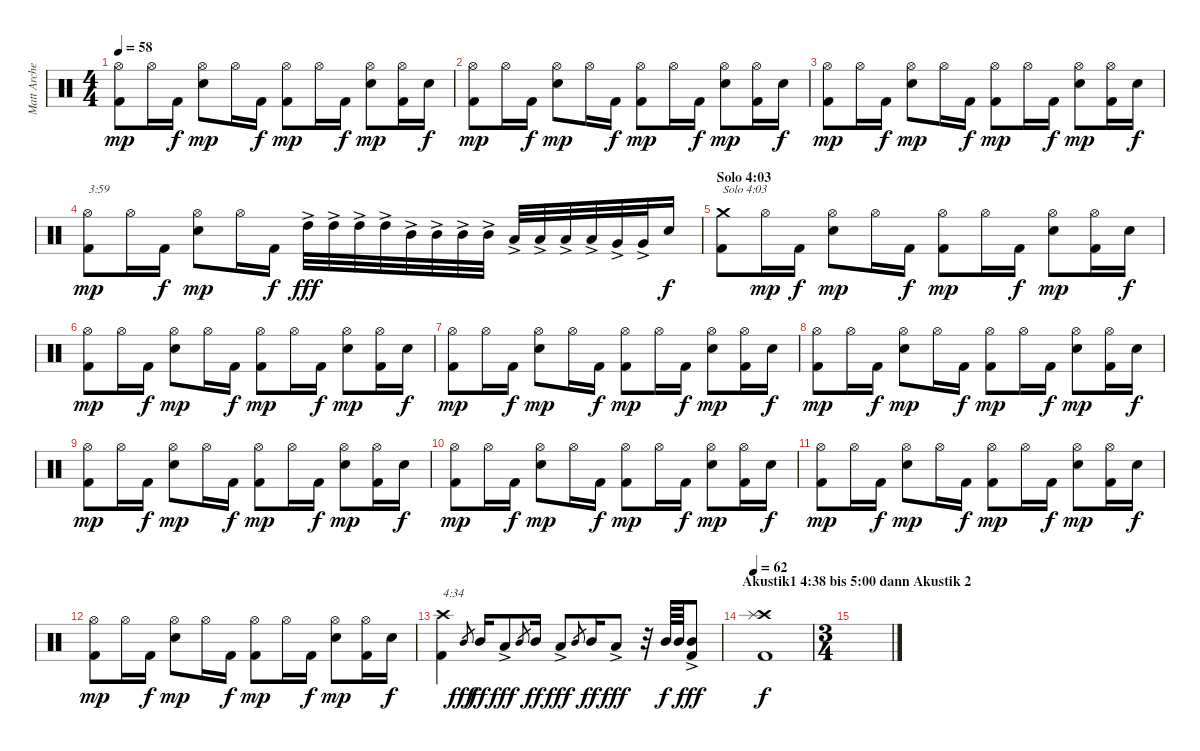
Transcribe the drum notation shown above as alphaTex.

\track ("Matt Archer" "Matt Arche") {instrument percussion}
\staff {score}
\articulation defaults
\ts (4 4)
\tempo 58
\clef neutral
\ks c
("Kick (hit) 2" "Hi-Hat (open)").8{dy mp} "Hi-Hat (open)".16 "Kick (hit) 2".16{dy f} ("Electric Snare (hit)" "Hi-Hat (open)").8{dy mp} "Hi-Hat (open)".16 "Kick (hit) 2".16{dy f} ("Kick (hit) 2" "Hi-Hat (open)").8{dy mp} "Hi-Hat (open)".16 "Kick (hit) 2".16{dy f} ("Electric Snare (hit)" "Hi-Hat (open)").8{dy mp} ("Kick (hit) 2" "Hi-Hat (open)").16 "Electric Snare (hit)".16{dy f} |
("Kick (hit) 2" "Hi-Hat (open)").8{dy mp} "Hi-Hat (open)".16 "Kick (hit) 2".16{dy f} ("Electric Snare (hit)" "Hi-Hat (open)").8{dy mp} "Hi-Hat (open)".16 "Kick (hit) 2".16{dy f} ("Kick (hit) 2" "Hi-Hat (open)").8{dy mp} "Hi-Hat (open)".16 "Kick (hit) 2".16{dy f} ("Electric Snare (hit)" "Hi-Hat (open)").8{dy mp} ("Kick (hit) 2" "Hi-Hat (open)").16 "Electric Snare (hit)".16{dy f} |
("Kick (hit) 2" "Hi-Hat (open)").8{dy mp} "Hi-Hat (open)".16 "Kick (hit) 2".16{dy f} ("Electric Snare (hit)" "Hi-Hat (open)").8{dy mp} "Hi-Hat (open)".16 "Kick (hit) 2".16{dy f} ("Kick (hit) 2" "Hi-Hat (open)").8{dy mp} "Hi-Hat (open)".16 "Kick (hit) 2".16{dy f} ("Electric Snare (hit)" "Hi-Hat (open)").8{dy mp} ("Kick (hit) 2" "Hi-Hat (open)").16 "Electric Snare (hit)".16{dy f} |
("Kick (hit) 2" "Hi-Hat (open)").8{txt "3:59" dy mp} "Hi-Hat (open)".16 "Kick (hit) 2".16{dy f} ("Electric Snare (hit)" "Hi-Hat (open)").8{dy mp} "Hi-Hat (open)".16 "Kick (hit) 2".16{dy f} "High Tom (hit)"{ac}.32{dy fff} "High Tom (hit)"{ac}.32 "High Tom (hit)"{ac}.32 "High Tom (hit)"{ac}.32 "Mid Tom (hit)"{ac}.32 "Mid Tom (hit)"{ac}.32 "Mid Tom (hit)"{ac}.32 "Mid Tom (hit)"{ac}.32 "Low Tom (hit)"{ac}.32 "Low Tom (hit)"{ac}.32 "Low Tom (hit)"{ac}.32 "Low Tom (hit)"{ac}.32 "Very Low Tom (hit)"{ac}.32 "Very Low Tom (hit)"{ac}.32 "Electric Snare (hit)".16{dy f} |
\section ("" "Solo 4:03")
("Kick (hit) 2" "Crash medium (hit)").8{txt "Solo 4:03"} "Hi-Hat (open)".16{dy mp} "Kick (hit) 2".16{dy f} ("Electric Snare (hit)" "Hi-Hat (open)").8{dy mp} "Hi-Hat (open)".16 "Kick (hit) 2".16{dy f} ("Kick (hit) 2" "Hi-Hat (open)").8{dy mp} "Hi-Hat (open)".16 "Kick (hit) 2".16{dy f} ("Electric Snare (hit)" "Hi-Hat (open)").8{dy mp} ("Kick (hit) 2" "Hi-Hat (open)").16 "Electric Snare (hit)".16{dy f} |
("Kick (hit) 2" "Hi-Hat (open)").8{dy mp} "Hi-Hat (open)".16 "Kick (hit) 2".16{dy f} ("Electric Snare (hit)" "Hi-Hat (open)").8{dy mp} "Hi-Hat (open)".16 "Kick (hit) 2".16{dy f} ("Kick (hit) 2" "Hi-Hat (open)").8{dy mp} "Hi-Hat (open)".16 "Kick (hit) 2".16{dy f} ("Electric Snare (hit)" "Hi-Hat (open)").8{dy mp} ("Kick (hit) 2" "Hi-Hat (open)").16 "Electric Snare (hit)".16{dy f} |
("Kick (hit) 2" "Hi-Hat (open)").8{dy mp} "Hi-Hat (open)".16 "Kick (hit) 2".16{dy f} ("Electric Snare (hit)" "Hi-Hat (open)").8{dy mp} "Hi-Hat (open)".16 "Kick (hit) 2".16{dy f} ("Kick (hit) 2" "Hi-Hat (open)").8{dy mp} "Hi-Hat (open)".16 "Kick (hit) 2".16{dy f} ("Electric Snare (hit)" "Hi-Hat (open)").8{dy mp} ("Kick (hit) 2" "Hi-Hat (open)").16 "Electric Snare (hit)".16{dy f} |
("Kick (hit) 2" "Hi-Hat (open)").8{dy mp} "Hi-Hat (open)".16 "Kick (hit) 2".16{dy f} ("Electric Snare (hit)" "Hi-Hat (open)").8{dy mp} "Hi-Hat (open)".16 "Kick (hit) 2".16{dy f} ("Kick (hit) 2" "Hi-Hat (open)").8{dy mp} "Hi-Hat (open)".16 "Kick (hit) 2".16{dy f} ("Electric Snare (hit)" "Hi-Hat (open)").8{dy mp} ("Kick (hit) 2" "Hi-Hat (open)").16 "Electric Snare (hit)".16{dy f} |
("Kick (hit) 2" "Hi-Hat (open)").8{dy mp} "Hi-Hat (open)".16 "Kick (hit) 2".16{dy f} ("Electric Snare (hit)" "Hi-Hat (open)").8{dy mp} "Hi-Hat (open)".16 "Kick (hit) 2".16{dy f} ("Kick (hit) 2" "Hi-Hat (open)").8{dy mp} "Hi-Hat (open)".16 "Kick (hit) 2".16{dy f} ("Electric Snare (hit)" "Hi-Hat (open)").8{dy mp} ("Kick (hit) 2" "Hi-Hat (open)").16 "Electric Snare (hit)".16{dy f} |
("Kick (hit) 2" "Hi-Hat (open)").8{dy mp} "Hi-Hat (open)".16 "Kick (hit) 2".16{dy f} ("Electric Snare (hit)" "Hi-Hat (open)").8{dy mp} "Hi-Hat (open)".16 "Kick (hit) 2".16{dy f} ("Kick (hit) 2" "Hi-Hat (open)").8{dy mp} "Hi-Hat (open)".16 "Kick (hit) 2".16{dy f} ("Electric Snare (hit)" "Hi-Hat (open)").8{dy mp} ("Kick (hit) 2" "Hi-Hat (open)").16 "Electric Snare (hit)".16{dy f} |
("Kick (hit) 2" "Hi-Hat (open)").8{dy mp} "Hi-Hat (open)".16 "Kick (hit) 2".16{dy f} ("Electric Snare (hit)" "Hi-Hat (open)").8{dy mp} "Hi-Hat (open)".16 "Kick (hit) 2".16{dy f} ("Kick (hit) 2" "Hi-Hat (open)").8{dy mp} "Hi-Hat (open)".16 "Kick (hit) 2".16{dy f} ("Electric Snare (hit)" "Hi-Hat (open)").8{dy mp} ("Kick (hit) 2" "Hi-Hat (open)").16 "Electric Snare (hit)".16{dy f} |
("Kick (hit) 2" "Hi-Hat (open)").8{dy mp} "Hi-Hat (open)".16 "Kick (hit) 2".16{dy f} ("Electric Snare (hit)" "Hi-Hat (open)").8{dy mp} "Hi-Hat (open)".16 "Kick (hit) 2".16{dy f} ("Kick (hit) 2" "Hi-Hat (open)").8{dy mp} "Hi-Hat (open)".16 "Kick (hit) 2".16{dy f} ("Electric Snare (hit)" "Hi-Hat (open)").8{dy mp} ("Kick (hit) 2" "Hi-Hat (open)").16 "Electric Snare (hit)".16{dy f} |
("Kick (hit) 2" "Crash high (hit)").4{txt "4:34"} "Mid Tom (hit)".8{gr dy fff} "Mid Tom (hit)".16{dy ff} "Low Tom (hit)"{ac}.8{dy fff} "Mid Tom (hit)".8{gr} "Mid Tom (hit)".16{dy ff} "Low Tom (hit)"{ac}.8{dy fff} "Mid Tom (hit)".8{gr} "Mid Tom (hit)".16{dy ff} "Low Tom (hit)"{ac}.8{dy fff} r.32 "Mid Tom (hit)".64{dy f} "Mid Tom (hit)".64 ("Kick (hit) 2" "Mid Tom (hit)"{ac}).8{dy fff} |
\section ("" "Akustik1 4:38 bis 5:00 dann Akustik 2")
\tempo 62
("Kick (hit) 2" "Crash high (hit)" "Splash (hit)").1{dy f} |
\ts (3 4)
